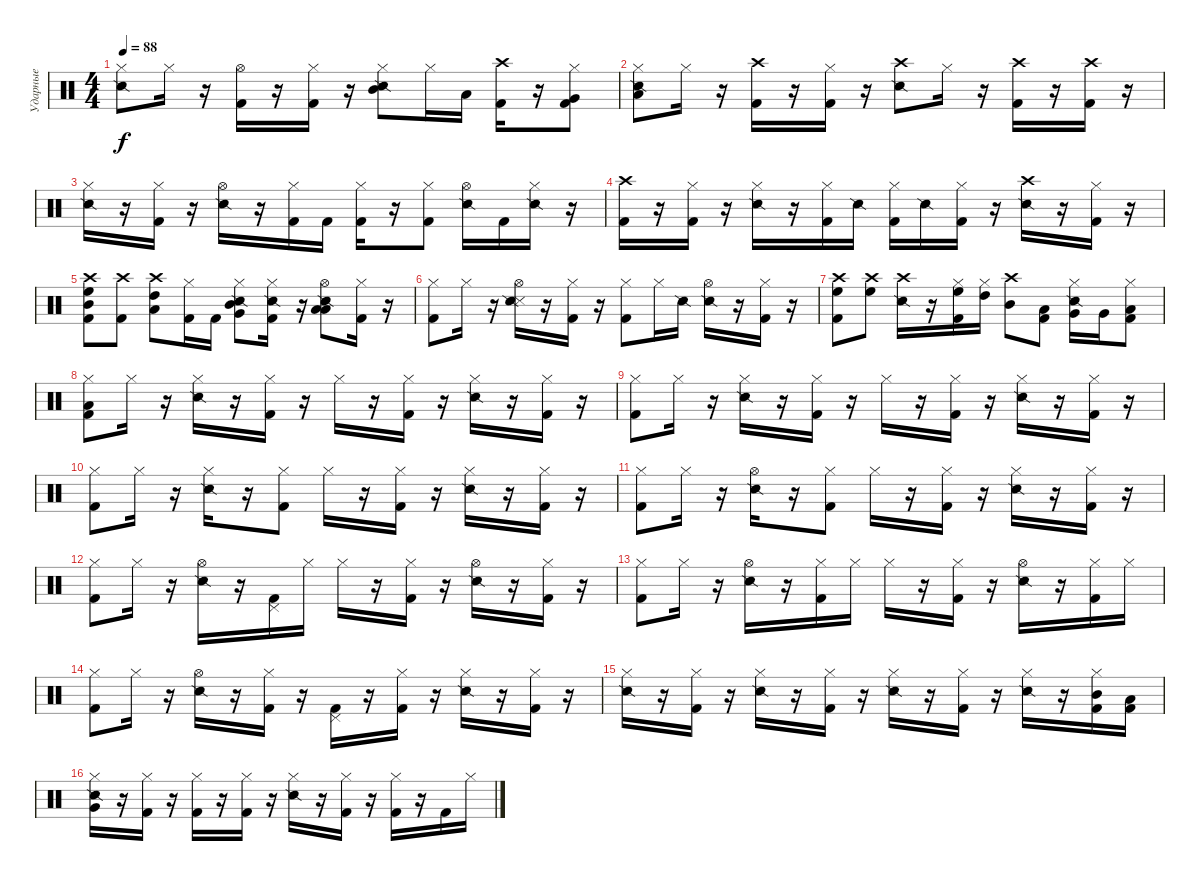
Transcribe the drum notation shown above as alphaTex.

\track ("Ударные" "Ударные") {instrument percussion}
\staff {score}
\articulation defaults
\ts (4 4)
\tempo 88
\clef neutral
\ks c
("Hi-Hat (closed)" "Snare (side stick) 2").8{dy f} "Hi-Hat (closed)".16 r.16 ("Hi-Hat (open)" "Kick (hit) 2").16 r.16 ("Hi-Hat (closed)" "Kick (hit) 2").16 r.16 ("Mid Tom (hit)" "Hi-Hat (closed)" "Snare (side stick) 2").8 "Hi-Hat (closed)".16 "Low Tom (hit)".16 ("Crash high (hit)" "Kick (hit) 2").16 r.16 ("Hi-Hat (closed)" "Very Low Tom (hit)" "Kick (hit) 2").8 |
("Hi-Hat (closed)" "Low Floor Tom (hit)" "Snare (side stick) 2").8 "Hi-Hat (closed)".16 r.16 ("Crash high (hit)" "Kick (hit) 2").16 r.16 ("Hi-Hat (closed)" "Kick (hit) 2").16 r.16 ("Crash high (hit)" "Snare (side stick) 2").8 "Hi-Hat (closed)".16 r.16 ("Kick (hit) 2" "Crash high (hit)").16 r.16 ("Crash high (hit)" "Kick (hit) 2").16 r.16 |
("Hi-Hat (closed)" "Snare (side stick) 2").16 r.16 ("Hi-Hat (closed)" "Kick (hit) 2").16 r.16 ("Hi-Hat (open)" "Snare (side stick) 2").16 r.16 ("Kick (hit) 2" "Hi-Hat (closed)").16 "Kick (hit) 2".16 ("Kick (hit) 2" "Hi-Hat (closed)").16 r.16 ("Kick (hit) 2" "Hi-Hat (closed)").8 ("Hi-Hat (open)" "Snare (side stick) 2").16 "Kick (hit) 2".16 ("Hi-Hat (closed)" "Snare (side stick) 2").16 r.16 |
("Kick (hit) 2" "Crash high (hit)").16 r.16 ("Kick (hit) 2" "Hi-Hat (closed)").16 r.16 ("Hi-Hat (closed)" "Snare (side stick) 2").16 r.16 ("Kick (hit) 2" "Hi-Hat (closed)").16 "Snare (side stick) 2".16 ("Hi-Hat (closed)" "Kick (hit) 2").16 "Snare (side stick) 2".16 ("Kick (hit) 2" "Hi-Hat (closed)").16 r.16 ("Crash high (hit)" "Snare (side stick) 2").16 r.16 ("Kick (hit) 2" "Hi-Hat (closed)").16 r.16 |
("Mid Tom (hit)" "Kick (hit) 2" "Crash high (hit)" "High Floor Tom (hit)").8 ("Crash high (hit)" "Kick (hit) 2").8 ("Crash high (hit)" "Low Tom (hit)" "High Tom (hit)").8 ("Hi-Hat (closed)" "Kick (hit) 2").16 "Kick (hit) 2".16 ("Very Low Tom (hit)" "Hi-Hat (closed)" "Mid Tom (hit)" "Snare (side stick) 2").8 ("Hi-Hat (closed)" "Kick (hit) 2" "Snare (side stick) 2").16 r.16 ("Low Tom (hit)" "Low Floor Tom (hit)" "Hi-Hat (open)" "Snare (side stick) 2").8 ("Hi-Hat (closed)" "Kick (hit) 2").16 r.16 |
("Hi-Hat (closed)" "Kick (hit) 2").8 "Hi-Hat (closed)".16 r.16 ("Snare (side stick) 3" "Hi-Hat (open)" "Snare (side stick) 2").16 r.16 ("Hi-Hat (closed)" "Kick (hit) 2").16 r.16 ("Kick (hit) 2" "Hi-Hat (closed)").8 "Hi-Hat (closed)".16 "Snare (side stick) 2".16 ("Hi-Hat (open)" "Snare (side stick) 2").16 r.16 ("Kick (hit) 2" "Hi-Hat (closed)").16 r.16 |
("High Floor Tom (hit)" "Crash high (hit)" "Kick (hit) 2").8 ("High Floor Tom (hit)" "Crash high (hit)").8 ("Crash high (hit)" "Snare (side stick) 2").16 r.16 ("Hi-Hat (closed)" "Kick (hit) 2" "High Floor Tom (hit)").16 ("High Tom (hit)" "Hi-Hat (closed)").16 ("Mid Tom (hit)" "Crash high (hit)").8 ("Kick (hit) 2" "Low Tom (hit)").8 ("Very Low Tom (hit)" "Hi-Hat (closed)" "Snare (side stick) 2").16 "Very Low Tom (hit)".16 ("Low Floor Tom (hit)" "Kick (hit) 2" "Hi-Hat (closed)").8 |
("Kick (hit) 2" "Low Floor Tom (hit)" "Hi-Hat (closed)").8 "Hi-Hat (closed)".16 r.16 ("Hi-Hat (closed)" "Snare (side stick) 2").16 r.16 ("Kick (hit) 2" "Hi-Hat (closed)").16 r.16 "Hi-Hat (closed)".16 r.16 ("Hi-Hat (closed)" "Kick (hit) 2").16 r.16 ("Hi-Hat (closed)" "Snare (side stick) 2").16 r.16 ("Hi-Hat (closed)" "Kick (hit) 2").16 r.16 |
("Hi-Hat (closed)" "Kick (hit) 2").8 "Hi-Hat (closed)".16 r.16 ("Hi-Hat (closed)" "Snare (side stick) 2").16 r.16 ("Hi-Hat (closed)" "Kick (hit) 2").16 r.16 "Hi-Hat (closed)".16 r.16 ("Hi-Hat (closed)" "Kick (hit) 2").16 r.16 ("Hi-Hat (closed)" "Snare (side stick) 2").16 r.16 ("Hi-Hat (closed)" "Kick (hit) 2").16 r.16 |
("Kick (hit) 2" "Hi-Hat (closed)").8 "Hi-Hat (closed)".16 r.16 ("Hi-Hat (closed)" "Snare (side stick) 2").16 r.16 ("Hi-Hat (closed)" "Kick (hit) 2").8 "Hi-Hat (closed)".16 r.16 ("Kick (hit) 2" "Hi-Hat (closed)").16 r.16 ("Hi-Hat (closed)" "Snare (side stick) 2").16 r.16 ("Kick (hit) 2" "Hi-Hat (closed)").16 r.16 |
("Kick (hit) 2" "Hi-Hat (closed)").8 "Hi-Hat (closed)".16 r.16 ("Hi-Hat (open)" "Snare (side stick) 2").16 r.16 ("Kick (hit) 2" "Hi-Hat (closed)").8 "Hi-Hat (closed)".16 r.16 ("Kick (hit) 2" "Hi-Hat (closed)").16 r.16 ("Hi-Hat (closed)" "Snare (side stick) 2").16 r.16 ("Kick (hit) 2" "Hi-Hat (closed)").16 r.16 |
("Kick (hit) 2" "Hi-Hat (closed)").8 "Hi-Hat (closed)".16 r.16 ("Hi-Hat (open)" "Snare (side stick) 2").16 r.16 ("Pedal Hi-Hat (hit)" "Kick (hit) 2").16 "Hi-Hat (closed)".16 "Hi-Hat (closed)".16 r.16 ("Hi-Hat (closed)" "Kick (hit) 2").16 r.16 ("Hi-Hat (open)" "Snare (side stick) 2").16 r.16 ("Hi-Hat (closed)" "Kick (hit) 2").16 r.16 |
("Kick (hit) 2" "Hi-Hat (closed)").8 "Hi-Hat (closed)".16 r.16 ("Hi-Hat (open)" "Snare (side stick) 2").16 r.16 ("Hi-Hat (closed)" "Kick (hit) 2").16 "Hi-Hat (closed)".16 "Hi-Hat (closed)".16 r.16 ("Hi-Hat (closed)" "Kick (hit) 2").16 r.16 ("Hi-Hat (open)" "Snare (side stick) 2").16 r.16 ("Hi-Hat (closed)" "Kick (hit) 2").16 "Hi-Hat (closed)".16 |
("Hi-Hat (closed)" "Kick (hit) 2").8 "Hi-Hat (closed)".16 r.16 ("Hi-Hat (open)" "Snare (side stick) 2").16 r.16 ("Hi-Hat (closed)" "Kick (hit) 2").16 r.16 ("Pedal Hi-Hat (hit)" "Kick (hit) 2").16 r.16 ("Hi-Hat (closed)" "Kick (hit) 2").16 r.16 ("Hi-Hat (closed)" "Snare (side stick) 2").16 r.16 ("Hi-Hat (closed)" "Kick (hit) 2").16 r.16 |
("Hi-Hat (closed)" "Snare (side stick) 2").16 r.16 ("Hi-Hat (closed)" "Kick (hit) 2").16 r.16 ("Hi-Hat (closed)" "Snare (side stick) 2").16 r.16 ("Hi-Hat (closed)" "Kick (hit) 2").16 r.16 ("Hi-Hat (closed)" "Snare (side stick) 2").16 r.16 ("Kick (hit) 2" "Hi-Hat (closed)").16 r.16 ("Hi-Hat (closed)" "Snare (side stick) 2").16 r.16 ("Kick (hit) 2" "Mid Tom (hit)" "Hi-Hat (closed)").16 ("Low Tom (hit)" "Kick (hit) 2").16 |
("Very Low Tom (hit)" "Hi-Hat (closed)" "Snare (side stick) 2").16 r.16 ("Kick (hit) 2" "Hi-Hat (closed)").16 r.16 ("Kick (hit) 2" "Hi-Hat (closed)").16 r.16 ("Hi-Hat (closed)" "Kick (hit) 2").16 r.16 ("Hi-Hat (closed)" "Snare (side stick) 2").16 r.16 ("Hi-Hat (closed)" "Kick (hit) 2").16 r.16 ("Hi-Hat (closed)" "Kick (hit) 2").16 r.16 "Kick (hit) 2".16 "Hi-Hat (closed)".16
